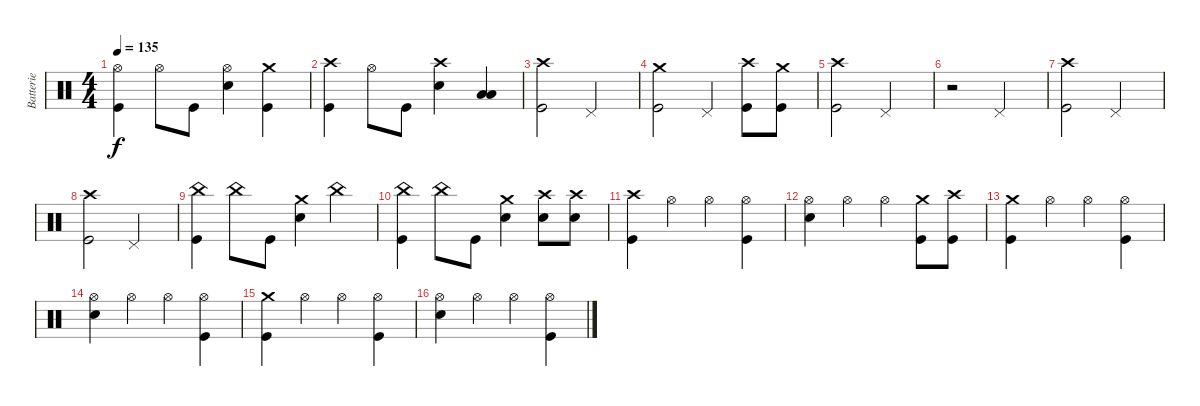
\track ("Batterie" "Batterie") {instrument percussion}
\staff {score}
\articulation defaults
\ts (4 4)
\tempo 135
\clef neutral
\ks c
("Hi-Hat (open)" "Kick (hit)").4{dy f} "Hi-Hat (open)".8 "Kick (hit)".8 ("Hi-Hat (open)" "Electric Snare (hit)").4 ("Crash medium (hit)" "Kick (hit)").4 |
("Crash high (hit)" "Kick (hit)").4 "Hi-Hat (open)".8 "Kick (hit)".8 ("Crash high (hit)" "Electric Snare (hit)").4 ("Low Tom (hit)" "Low Floor Tom (hit)").4 |
("Crash high (hit)" "Kick (hit)").2 "Pedal Hi-Hat (hit)".2 |
("Crash medium (hit)" "Kick (hit)").2 "Pedal Hi-Hat (hit)".4 ("Crash high (hit)" "Kick (hit)").8 ("Crash medium (hit)" "Kick (hit)").8 |
("Crash high (hit)" "Kick (hit)").2 "Pedal Hi-Hat (hit)".2 |
r.2 "Pedal Hi-Hat (hit)".2 |
("Crash high (hit)" "Kick (hit)").2 "Pedal Hi-Hat (hit)".2 |
("Crash high (hit)" "Kick (hit)").2 "Pedal Hi-Hat (hit)".2 |
("China (hit)" "Kick (hit)").4 "China (hit)".8 "Kick (hit)".8 ("Crash medium (hit)" "Electric Snare (hit)").4 "China (hit)".4 |
("China (hit)" "Kick (hit)").4 "China (hit)".8 "Kick (hit)".8 ("Crash medium (hit)" "Electric Snare (hit)").4 ("Crash high (hit)" "Electric Snare (hit)").8 ("Crash high (hit)" "Electric Snare (hit)").8 |
("Crash high (hit)" "Kick (hit)").4 "Hi-Hat (open)".4 "Hi-Hat (open)".4 ("Hi-Hat (open)" "Kick (hit)").4 |
("Hi-Hat (open)" "Electric Snare (hit)").4 "Hi-Hat (open)".4 "Hi-Hat (open)".4 ("Crash medium (hit)" "Kick (hit)").8 ("Crash high (hit)" "Kick (hit)").8 |
("Crash medium (hit)" "Kick (hit)").4 "Hi-Hat (open)".4 "Hi-Hat (open)".4 ("Hi-Hat (open)" "Kick (hit)").4 |
("Hi-Hat (open)" "Electric Snare (hit)").4 "Hi-Hat (open)".4 "Hi-Hat (open)".4 ("Hi-Hat (open)" "Kick (hit)").4 |
("Crash medium (hit)" "Kick (hit)").4 "Hi-Hat (open)".4 "Hi-Hat (open)".4 ("Hi-Hat (open)" "Kick (hit)").4 |
("Hi-Hat (open)" "Electric Snare (hit)").4 "Hi-Hat (open)".4 "Hi-Hat (open)".4 ("Hi-Hat (open)" "Kick (hit)").4
